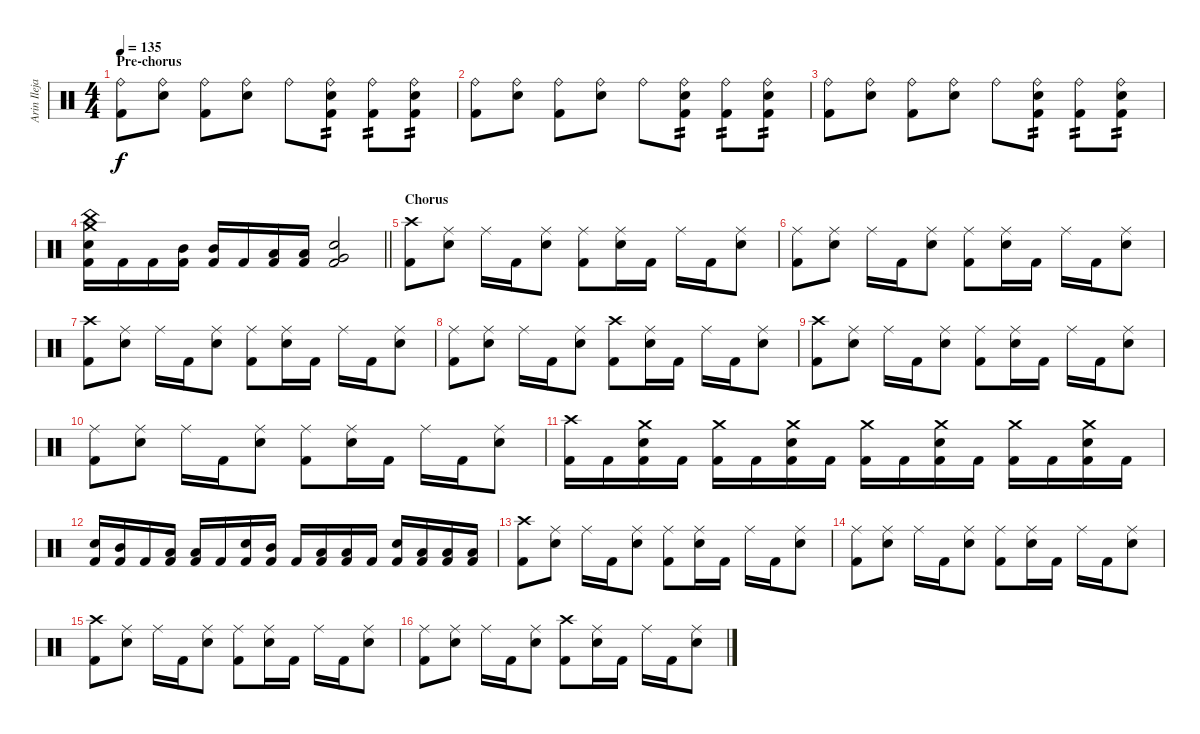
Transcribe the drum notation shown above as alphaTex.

\track ("Arin Ilejay" "Arin Ileja") {instrument percussion}
\staff {score}
\articulation defaults
\ts (4 4)
\section ("" "Pre-chorus")
\tempo 135
\clef neutral
\ks c
("Ride (bell)" "Kick (hit) 2").8{dy f} ("Ride (bell)" "Electric Snare (hit)").8 ("Ride (bell)" "Kick (hit) 2").8 ("Ride (bell)" "Electric Snare (hit)").8 "Ride (bell)".8 ("Ride (bell)" "Electric Snare (hit)" "Kick (hit) 2").8{tp 2} ("Ride (bell)" "Kick (hit) 2").8{tp 2} ("Ride (bell)" "Electric Snare (hit)" "Kick (hit) 2").8{tp 2} |
("Ride (bell)" "Kick (hit) 2").8 ("Ride (bell)" "Electric Snare (hit)").8 ("Ride (bell)" "Kick (hit) 2").8 ("Ride (bell)" "Electric Snare (hit)").8 "Ride (bell)".8 ("Ride (bell)" "Electric Snare (hit)" "Kick (hit) 2").8{tp 2} ("Ride (bell)" "Kick (hit) 2").8{tp 2} ("Ride (bell)" "Electric Snare (hit)" "Kick (hit) 2").8{tp 2} |
("Ride (bell)" "Kick (hit) 2").8 ("Ride (bell)" "Electric Snare (hit)").8 ("Ride (bell)" "Kick (hit) 2").8 ("Ride (bell)" "Electric Snare (hit)").8 "Ride (bell)".8 ("Ride (bell)" "Electric Snare (hit)" "Kick (hit) 2").8{tp 2} ("Ride (bell)" "Kick (hit) 2").8{tp 2} ("Ride (bell)" "Electric Snare (hit)" "Kick (hit) 2").8{tp 2} |
\barLineRight lightlight
("Crash medium (hit)" "China (hit)" "Electric Snare (hit)" "Kick (hit) 2").16 "Kick (hit) 2".16 "Kick (hit) 2".16 ("Mid Tom (hit)" "Kick (hit) 2").16 ("Mid Tom (hit)" "Kick (hit) 2").16 "Kick (hit) 2".16 ("Low Tom (hit)" "Kick (hit) 2").16 ("Low Tom (hit)" "Kick (hit) 2").16 ("Electric Snare (hit)" "Very Low Tom (hit)" "Kick (hit) 2").2 |
\section ("" "Chorus")
("Crash high (hit)" "Kick (hit) 2").8 ("Ride (middle)" "Electric Snare (hit)").8 "Ride (middle)".16 "Kick (hit) 2".16 ("Ride (middle)" "Electric Snare (hit)").8 ("Ride (middle)" "Kick (hit) 2").8 ("Ride (middle)" "Electric Snare (hit)").16 "Kick (hit) 2".16 "Ride (middle)".16 "Kick (hit) 2".16 ("Ride (middle)" "Electric Snare (hit)").8 |
("Ride (middle)" "Kick (hit) 2").8 ("Ride (middle)" "Electric Snare (hit)").8 "Ride (middle)".16 "Kick (hit) 2".16 ("Ride (middle)" "Electric Snare (hit)").8 ("Ride (middle)" "Kick (hit) 2").8 ("Ride (middle)" "Electric Snare (hit)").16 "Kick (hit) 2".16 "Ride (middle)".16 "Kick (hit) 2".16 ("Ride (middle)" "Electric Snare (hit)").8 |
("Crash high (hit)" "Kick (hit) 2").8 ("Ride (middle)" "Electric Snare (hit)").8 "Ride (middle)".16 "Kick (hit) 2".16 ("Ride (middle)" "Electric Snare (hit)").8 ("Ride (middle)" "Kick (hit) 2").8 ("Ride (middle)" "Electric Snare (hit)").16 "Kick (hit) 2".16 "Ride (middle)".16 "Kick (hit) 2".16 ("Ride (middle)" "Electric Snare (hit)").8 |
("Ride (middle)" "Kick (hit) 2").8 ("Ride (middle)" "Electric Snare (hit)").8 "Ride (middle)".16 "Kick (hit) 2".16 ("Ride (middle)" "Electric Snare (hit)").8 ("Crash high (hit)" "Kick (hit) 2").8 ("Ride (middle)" "Electric Snare (hit)").16 "Kick (hit) 2".16 "Ride (middle)".16 "Kick (hit) 2".16 ("Ride (middle)" "Electric Snare (hit)").8 |
("Crash high (hit)" "Kick (hit) 2").8 ("Ride (middle)" "Electric Snare (hit)").8 "Ride (middle)".16 "Kick (hit) 2".16 ("Ride (middle)" "Electric Snare (hit)").8 ("Ride (middle)" "Kick (hit) 2").8 ("Ride (middle)" "Electric Snare (hit)").16 "Kick (hit) 2".16 "Ride (middle)".16 "Kick (hit) 2".16 ("Ride (middle)" "Electric Snare (hit)").8 |
("Ride (middle)" "Kick (hit) 2").8 ("Ride (middle)" "Electric Snare (hit)").8 "Ride (middle)".16 "Kick (hit) 2".16 ("Ride (middle)" "Electric Snare (hit)").8 ("Ride (middle)" "Kick (hit) 2").8 ("Ride (middle)" "Electric Snare (hit)").16 "Kick (hit) 2".16 "Ride (middle)".16 "Kick (hit) 2".16 ("Ride (middle)" "Electric Snare (hit)").8 |
("Crash high (hit)" "Kick (hit) 2").16 "Kick (hit) 2".16 ("Crash medium (hit)" "Electric Snare (hit)" "Kick (hit) 2").16 "Kick (hit) 2".16 ("Crash medium (hit)" "Kick (hit) 2").16 "Kick (hit) 2".16 ("Crash medium (hit)" "Electric Snare (hit)" "Kick (hit) 2").16 "Kick (hit) 2".16 ("Crash medium (hit)" "Kick (hit) 2").16 "Kick (hit) 2".16 ("Crash medium (hit)" "Electric Snare (hit)" "Kick (hit) 2").16 "Kick (hit) 2".16 ("Crash medium (hit)" "Kick (hit) 2").16 "Kick (hit) 2".16 ("Crash medium (hit)" "Electric Snare (hit)" "Kick (hit) 2").16 "Kick (hit) 2".16 |
("Electric Snare (hit)" "Kick (hit) 2").16 ("Mid Tom (hit)" "Kick (hit) 2").16 "Kick (hit) 2".16 ("Low Tom (hit)" "Kick (hit) 2").16 ("Low Tom (hit)" "Kick (hit) 2").16 "Kick (hit) 2".16 ("Electric Snare (hit)" "Kick (hit) 2").16 ("Mid Tom (hit)" "Kick (hit) 2").16 "Kick (hit) 2".16 ("Low Tom (hit)" "Kick (hit) 2").16 ("Low Tom (hit)" "Kick (hit) 2").16 "Kick (hit) 2".16 ("Electric Snare (hit)" "Kick (hit) 2").16 ("Low Tom (hit)" "Kick (hit) 2").16 ("Low Tom (hit)" "Kick (hit) 2").16 ("Low Tom (hit)" "Kick (hit) 2").16 |
("Crash high (hit)" "Kick (hit) 2").8 ("Ride (middle)" "Electric Snare (hit)").8 "Ride (middle)".16 "Kick (hit) 2".16 ("Ride (middle)" "Electric Snare (hit)").8 ("Ride (middle)" "Kick (hit) 2").8 ("Ride (middle)" "Electric Snare (hit)").16 "Kick (hit) 2".16 "Ride (middle)".16 "Kick (hit) 2".16 ("Ride (middle)" "Electric Snare (hit)").8 |
("Ride (middle)" "Kick (hit) 2").8 ("Ride (middle)" "Electric Snare (hit)").8 "Ride (middle)".16 "Kick (hit) 2".16 ("Ride (middle)" "Electric Snare (hit)").8 ("Ride (middle)" "Kick (hit) 2").8 ("Ride (middle)" "Electric Snare (hit)").16 "Kick (hit) 2".16 "Ride (middle)".16 "Kick (hit) 2".16 ("Ride (middle)" "Electric Snare (hit)").8 |
("Crash high (hit)" "Kick (hit) 2").8 ("Ride (middle)" "Electric Snare (hit)").8 "Ride (middle)".16 "Kick (hit) 2".16 ("Ride (middle)" "Electric Snare (hit)").8 ("Ride (middle)" "Kick (hit) 2").8 ("Ride (middle)" "Electric Snare (hit)").16 "Kick (hit) 2".16 "Ride (middle)".16 "Kick (hit) 2".16 ("Ride (middle)" "Electric Snare (hit)").8 |
("Ride (middle)" "Kick (hit) 2").8 ("Ride (middle)" "Electric Snare (hit)").8 "Ride (middle)".16 "Kick (hit) 2".16 ("Ride (middle)" "Electric Snare (hit)").8 ("Crash high (hit)" "Kick (hit) 2").8 ("Ride (middle)" "Electric Snare (hit)").16 "Kick (hit) 2".16 "Ride (middle)".16 "Kick (hit) 2".16 ("Ride (middle)" "Electric Snare (hit)").8
